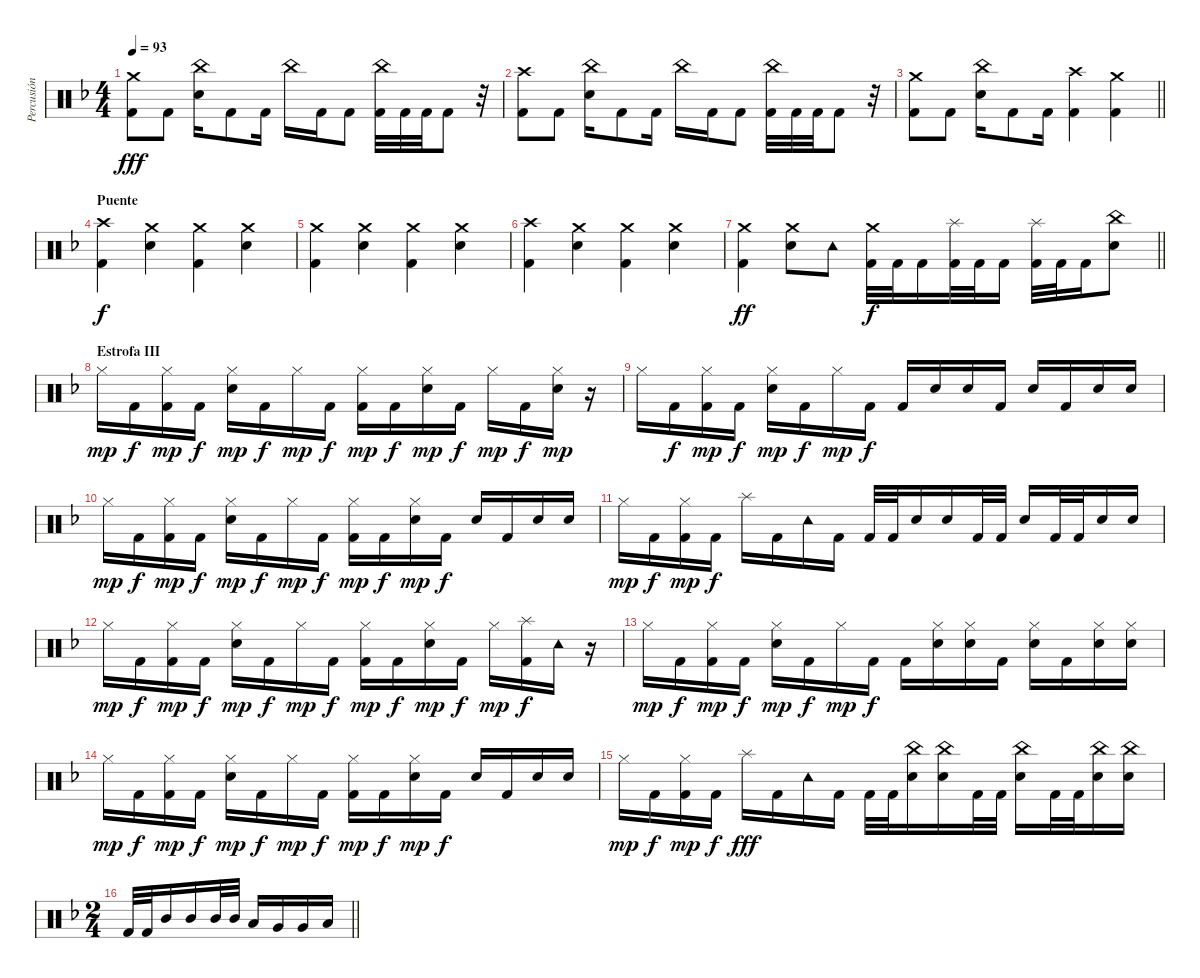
\track ("Percusión" "Percusión") {instrument percussion}
\staff {score}
\articulation defaults
\ts (4 4)
\tempo 93
\clef neutral
\ks dminor
("Crash medium (hit)" "Kick (hit) 2").8{dy fff} "Kick (hit) 2".8 ("China (hit)" "Snare (hit) 2").16 "Kick (hit) 2".8 "Kick (hit) 2".16 "China (hit)".16 "Kick (hit) 2".16 "Kick (hit) 2".8 ("China (hit)" "Kick (hit) 2").32 "Kick (hit) 2".32 "Kick (hit) 2".32 "Kick (hit) 2".8 r.32 |
("Crash high (hit)" "Kick (hit) 2").8 "Kick (hit) 2".8 ("China (hit)" "Snare (hit) 2").16 "Kick (hit) 2".8 "Kick (hit) 2".16 "China (hit)".16 "Kick (hit) 2".16 "Kick (hit) 2".8 ("China (hit)" "Kick (hit) 2").32 "Kick (hit) 2".32 "Kick (hit) 2".32 "Kick (hit) 2".8 r.32 |
\barLineRight lightlight
("Crash medium (hit)" "Kick (hit) 2").8 "Kick (hit) 2".8 ("China (hit)" "Snare (hit) 2").16 "Kick (hit) 2".8 "Kick (hit) 2".16 ("Crash high (hit)" "Kick (hit) 2").4 ("Crash medium (hit)" "Kick (hit) 2").4 |
\section ("" "Puente")
("Crash high (hit)" "Kick (hit) 2").4{dy f} ("Crash medium (hit)" "Snare (hit) 2").4 ("Crash medium (hit)" "Kick (hit) 2").4 ("Crash medium (hit)" "Snare (hit) 2").4 |
("Crash medium (hit)" "Kick (hit) 2").4 ("Crash medium (hit)" "Snare (hit) 2").4 ("Crash medium (hit)" "Kick (hit) 2").4 ("Crash medium (hit)" "Snare (hit) 2").4 |
("Crash high (hit)" "Kick (hit) 2").4 ("Crash medium (hit)" "Snare (hit) 2").4 ("Crash medium (hit)" "Kick (hit) 2").4 ("Crash medium (hit)" "Snare (hit) 2").4 |
\barLineRight lightlight
("Crash medium (hit)" "Kick (hit) 2").4{dy ff} ("Crash medium (hit)" "Snare (hit) 2").8 "Tambourine (hit)".8 ("Crash medium (hit)" "Kick (hit) 2").32{dy f} "Kick (hit) 2".32 "Kick (hit) 2".16 ("Splash (hit)" "Kick (hit) 2").32 "Kick (hit) 2".32 "Kick (hit) 2".16 ("Splash (hit)" "Kick (hit) 2").32 "Kick (hit) 2".32 "Kick (hit) 2".16 ("China (hit)" "Snare (hit) 2").8 |
\section ("" "Estrofa III")
"Hi-Hat (closed)".16{dy mp} "Kick (hit) 2".16{dy f} ("Hi-Hat (closed)" "Kick (hit) 2").16{dy mp} "Kick (hit) 2".16{dy f} ("Hi-Hat (closed)" "Snare (hit) 2").16{dy mp} "Kick (hit) 2".16{dy f} "Hi-Hat (closed)".16{dy mp} "Kick (hit) 2".16{dy f} ("Hi-Hat (closed)" "Kick (hit) 2").16{dy mp} "Kick (hit) 2".16{dy f} ("Hi-Hat (closed)" "Snare (hit) 2").16{dy mp} "Kick (hit) 2".16{dy f} "Hi-Hat (closed)".16{dy mp} "Kick (hit) 2".16{dy f} ("Hi-Hat (closed)" "Snare (hit) 2").16{dy mp} r.16 |
"Hi-Hat (closed)".16 "Kick (hit) 2".16{dy f} ("Hi-Hat (closed)" "Kick (hit) 2").16{dy mp} "Kick (hit) 2".16{dy f} ("Hi-Hat (closed)" "Snare (hit) 2").16{dy mp} "Kick (hit) 2".16{dy f} "Hi-Hat (closed)".16{dy mp} "Kick (hit) 2".16{dy f} "Kick (hit) 2".16 "Snare (hit) 2".16 "Snare (hit) 2".16 "Kick (hit) 2".16 "Snare (hit) 2".16 "Kick (hit) 2".16 "Snare (hit) 2".16 "Snare (hit) 2".16 |
"Hi-Hat (closed)".16{dy mp} "Kick (hit) 2".16{dy f} ("Hi-Hat (closed)" "Kick (hit) 2").16{dy mp} "Kick (hit) 2".16{dy f} ("Hi-Hat (closed)" "Snare (hit) 2").16{dy mp} "Kick (hit) 2".16{dy f} "Hi-Hat (closed)".16{dy mp} "Kick (hit) 2".16{dy f} ("Hi-Hat (closed)" "Kick (hit) 2").16{dy mp} "Kick (hit) 2".16{dy f} ("Hi-Hat (closed)" "Snare (hit) 2").16{dy mp} "Kick (hit) 2".16{dy f} "Snare (hit) 2".16 "Kick (hit) 2".16 "Snare (hit) 2".16 "Snare (hit) 2".16 |
"Hi-Hat (closed)".16{dy mp} "Kick (hit) 2".16{dy f} ("Hi-Hat (closed)" "Kick (hit) 2").16{dy mp} "Kick (hit) 2".16{dy f} "Splash (hit)".16 "Kick (hit) 2".16 "Tambourine (hit)".16 "Kick (hit) 2".16 "Kick (hit) 2".32 "Kick (hit) 2".32 "Snare (hit) 2".16 "Snare (hit) 2".16 "Kick (hit) 2".32 "Kick (hit) 2".32 "Snare (hit) 2".16 "Kick (hit) 2".32 "Kick (hit) 2".32 "Snare (hit) 2".16 "Snare (hit) 2".16 |
"Hi-Hat (closed)".16{dy mp} "Kick (hit) 2".16{dy f} ("Hi-Hat (closed)" "Kick (hit) 2").16{dy mp} "Kick (hit) 2".16{dy f} ("Hi-Hat (closed)" "Snare (hit) 2").16{dy mp} "Kick (hit) 2".16{dy f} "Hi-Hat (closed)".16{dy mp} "Kick (hit) 2".16{dy f} ("Hi-Hat (closed)" "Kick (hit) 2").16{dy mp} "Kick (hit) 2".16{dy f} ("Hi-Hat (closed)" "Snare (hit) 2").16{dy mp} "Kick (hit) 2".16{dy f} "Hi-Hat (closed)".16{dy mp} ("Splash (hit)" "Kick (hit) 2").16{dy f} "Tambourine (hit)".16 r.16 |
"Hi-Hat (closed)".16{dy mp} "Kick (hit) 2".16{dy f} ("Hi-Hat (closed)" "Kick (hit) 2").16{dy mp} "Kick (hit) 2".16{dy f} ("Hi-Hat (closed)" "Snare (hit) 2").16{dy mp} "Kick (hit) 2".16{dy f} "Hi-Hat (closed)".16{dy mp} "Kick (hit) 2".16{dy f} "Kick (hit) 2".16 ("Hi-Hat (closed)" "Snare (hit) 2").16 ("Hi-Hat (closed)" "Snare (hit) 2").16 "Kick (hit) 2".16 ("Hi-Hat (closed)" "Snare (hit) 2").16 "Kick (hit) 2".16 ("Hi-Hat (closed)" "Snare (hit) 2").16 ("Hi-Hat (closed)" "Snare (hit) 2").16 |
"Hi-Hat (closed)".16{dy mp} "Kick (hit) 2".16{dy f} ("Hi-Hat (closed)" "Kick (hit) 2").16{dy mp} "Kick (hit) 2".16{dy f} ("Hi-Hat (closed)" "Snare (hit) 2").16{dy mp} "Kick (hit) 2".16{dy f} "Hi-Hat (closed)".16{dy mp} "Kick (hit) 2".16{dy f} ("Hi-Hat (closed)" "Kick (hit) 2").16{dy mp} "Kick (hit) 2".16{dy f} ("Hi-Hat (closed)" "Snare (hit) 2").16{dy mp} "Kick (hit) 2".16{dy f} "Snare (hit) 2".16 "Kick (hit) 2".16 "Snare (hit) 2".16 "Snare (hit) 2".16 |
"Hi-Hat (closed)".16{dy mp} "Kick (hit) 2".16{dy f} ("Hi-Hat (closed)" "Kick (hit) 2").16{dy mp} "Kick (hit) 2".16{dy f} "Splash (hit)".16{dy fff} "Kick (hit) 2".16 "Tambourine (hit)".16 "Kick (hit) 2".16 "Kick (hit) 2".32 "Kick (hit) 2".32 ("China (hit)" "Snare (hit) 2").16 ("China (hit)" "Snare (hit) 2").16 "Kick (hit) 2".32 "Kick (hit) 2".32 ("China (hit)" "Snare (hit) 2").16 "Kick (hit) 2".32 "Kick (hit) 2".32 ("China (hit)" "Snare (hit) 2").16 ("China (hit)" "Snare (hit) 2").16 |
\ts (2 4)
\barLineRight lightlight "Kick (hit) 2".32 "Kick (hit) 2".32 "Mid Tom (hit)".16 "Mid Tom (hit)".16 "Mid Tom (hit)".32 "Mid Tom (hit)".32 "Low Tom (hit)".16 "Very Low Tom (hit)".16 "Very Low Tom (hit)".16 "Low Floor Tom (hit)".16
